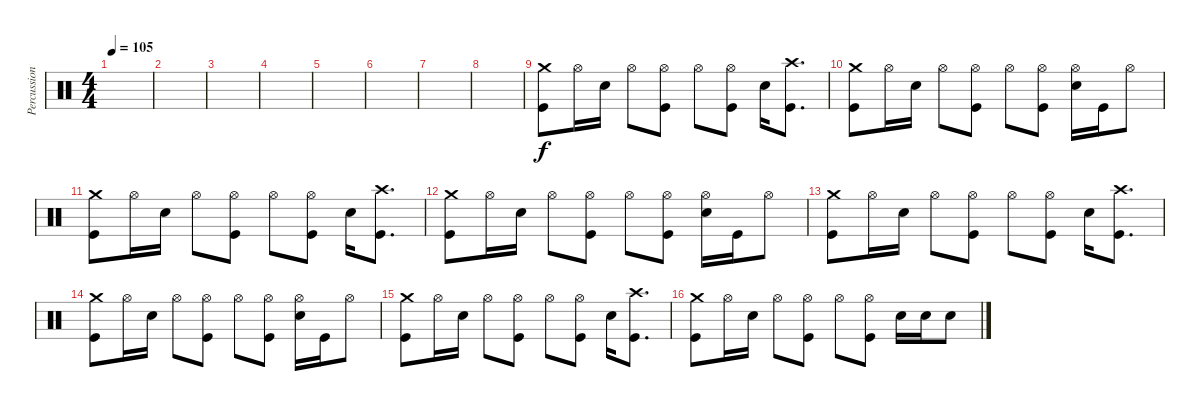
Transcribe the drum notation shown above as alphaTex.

\track ("Percussion" "Percussion") {instrument percussion}
\staff {score}
\articulation defaults
\ts (4 4)
\tempo 105
\clef neutral
\ks c
|
|
|
|
|
|
|
|
("Crash medium (hit)" "Kick (hit)").8 "Hi-Hat (open)".16 "Electric Snare (hit)".16 "Hi-Hat (open)".8 ("Hi-Hat (open)" "Kick (hit)").8 "Hi-Hat (open)".8 ("Hi-Hat (open)" "Kick (hit)").8 "Electric Snare (hit)".16 ("Kick (hit)" "Crash high (hit)").8{d} |
("Crash medium (hit)" "Kick (hit)").8 "Hi-Hat (open)".16 "Electric Snare (hit)".16 "Hi-Hat (open)".8 ("Hi-Hat (open)" "Kick (hit)").8 "Hi-Hat (open)".8 ("Kick (hit)" "Hi-Hat (open)").8 ("Hi-Hat (open)" "Electric Snare (hit)").16 "Kick (hit)".16 "Hi-Hat (open)".8 |
("Crash medium (hit)" "Kick (hit)").8 "Hi-Hat (open)".16 "Electric Snare (hit)".16 "Hi-Hat (open)".8 ("Hi-Hat (open)" "Kick (hit)").8 "Hi-Hat (open)".8 ("Hi-Hat (open)" "Kick (hit)").8 "Electric Snare (hit)".16 ("Kick (hit)" "Crash high (hit)").8{d} |
("Crash medium (hit)" "Kick (hit)").8 "Hi-Hat (open)".16 "Electric Snare (hit)".16 "Hi-Hat (open)".8 ("Hi-Hat (open)" "Kick (hit)").8 "Hi-Hat (open)".8 ("Kick (hit)" "Hi-Hat (open)").8 ("Hi-Hat (open)" "Electric Snare (hit)").16 "Kick (hit)".16 "Hi-Hat (open)".8 |
("Crash medium (hit)" "Kick (hit)").8 "Hi-Hat (open)".16 "Electric Snare (hit)".16 "Hi-Hat (open)".8 ("Hi-Hat (open)" "Kick (hit)").8 "Hi-Hat (open)".8 ("Hi-Hat (open)" "Kick (hit)").8 "Electric Snare (hit)".16 ("Kick (hit)" "Crash high (hit)").8{d} |
("Crash medium (hit)" "Kick (hit)").8 "Hi-Hat (open)".16 "Electric Snare (hit)".16 "Hi-Hat (open)".8 ("Hi-Hat (open)" "Kick (hit)").8 "Hi-Hat (open)".8 ("Kick (hit)" "Hi-Hat (open)").8 ("Hi-Hat (open)" "Electric Snare (hit)").16 "Kick (hit)".16 "Hi-Hat (open)".8 |
("Crash medium (hit)" "Kick (hit)").8 "Hi-Hat (open)".16 "Electric Snare (hit)".16 "Hi-Hat (open)".8 ("Hi-Hat (open)" "Kick (hit)").8 "Hi-Hat (open)".8 ("Hi-Hat (open)" "Kick (hit)").8 "Electric Snare (hit)".16 ("Kick (hit)" "Crash high (hit)").8{d} |
("Crash medium (hit)" "Kick (hit)").8 "Hi-Hat (open)".16 "Electric Snare (hit)".16 "Hi-Hat (open)".8 ("Hi-Hat (open)" "Kick (hit)").8 "Hi-Hat (open)".8 ("Kick (hit)" "Hi-Hat (open)").8 "Electric Snare (hit)".16 "Electric Snare (hit)".16 "Electric Snare (hit)".8
